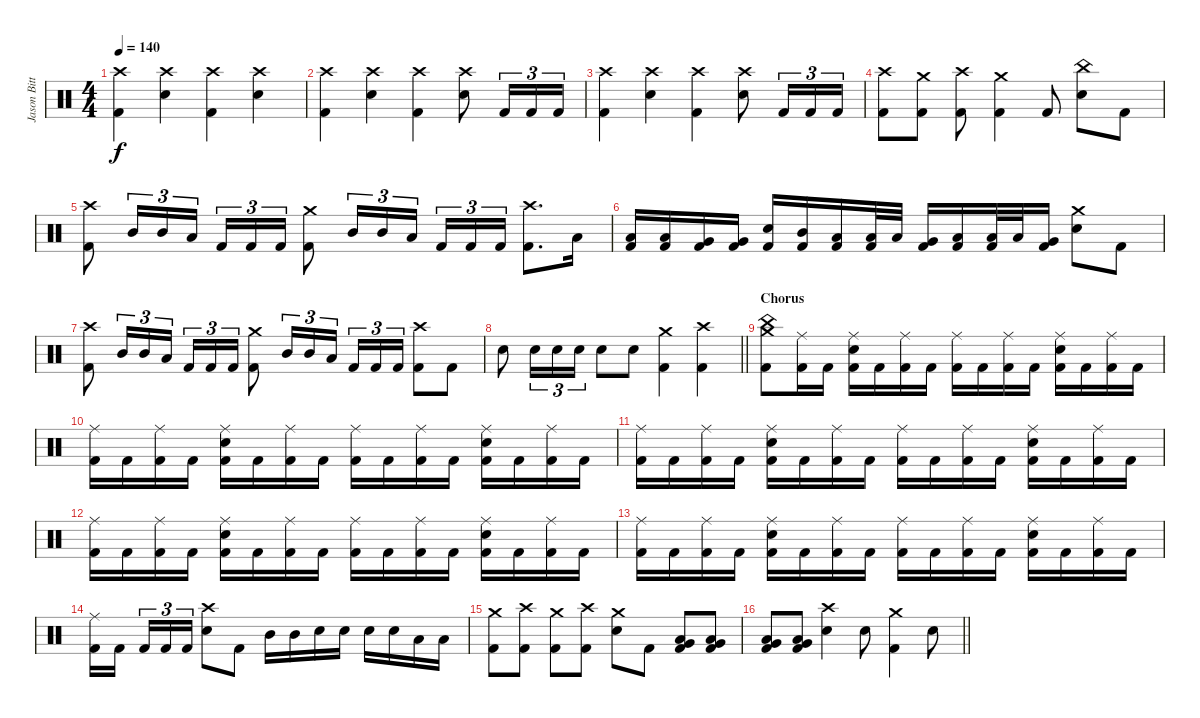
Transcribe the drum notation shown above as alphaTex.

\track ("Jason Bittner" "Jason Bitt") {instrument percussion}
\staff {score}
\articulation defaults
\ts (4 4)
\tempo 140
\clef neutral
\ks c
("Crash high (hit)" "Kick (hit) 2").4{dy f} ("Crash high (hit)" "Electric Snare (hit)").4 ("Crash high (hit)" "Kick (hit) 2").4 ("Crash high (hit)" "Electric Snare (hit)").4 |
("Crash high (hit)" "Kick (hit) 2").4 ("Crash high (hit)" "Electric Snare (hit)").4 ("Crash high (hit)" "Kick (hit) 2").4 ("Crash high (hit)" "Electric Snare (hit)").8 "Kick (hit) 2".16{tu (3 2)} "Kick (hit) 2".16{tu (3 2)} "Kick (hit) 2".16{tu (3 2)} |
("Crash high (hit)" "Kick (hit) 2").4 ("Crash high (hit)" "Electric Snare (hit)").4 ("Crash high (hit)" "Kick (hit) 2").4 ("Crash high (hit)" "Electric Snare (hit)").8 "Kick (hit) 2".16{tu (3 2)} "Kick (hit) 2".16{tu (3 2)} "Kick (hit) 2".16{tu (3 2)} |
("Crash high (hit)" "Kick (hit) 2").8 ("Crash medium (hit)" "Kick (hit) 2").8 ("Crash high (hit)" "Kick (hit) 2").8 ("Crash medium (hit)" "Kick (hit) 2").4 "Kick (hit) 2".8 ("China (hit)" "Electric Snare (hit)").8 "Kick (hit) 2".8 |
("Crash high (hit)" "Kick (hit) 2").8 "Mid Tom (hit)".16{tu (3 2)} "Mid Tom (hit)".16{tu (3 2)} "Low Tom (hit)".16{tu (3 2)} "Kick (hit) 2".16{tu (3 2)} "Kick (hit) 2".16{tu (3 2)} "Kick (hit) 2".16{tu (3 2)} ("Crash medium (hit)" "Kick (hit) 2").8 "Mid Tom (hit)".16{tu (3 2)} "Mid Tom (hit)".16{tu (3 2)} "Low Tom (hit)".16{tu (3 2) beam splitsecondary} "Kick (hit) 2".16{tu (3 2)} "Kick (hit) 2".16{tu (3 2)} "Kick (hit) 2".16{tu (3 2)} ("Crash high (hit)" "Kick (hit) 2").8{d} "Low Tom (hit)".16 |
("Low Tom (hit)" "Kick (hit) 2").16 ("Low Tom (hit)" "Kick (hit) 2").16 ("Very Low Tom (hit)" "Kick (hit) 2").16 ("Very Low Tom (hit)" "Kick (hit) 2").16 ("Electric Snare (hit)" "Kick (hit) 2").16 ("Mid Tom (hit)" "Kick (hit) 2").16 ("Low Tom (hit)" "Kick (hit) 2").16 ("Low Tom (hit)" "Kick (hit) 2").32 "Low Tom (hit)".32 ("Very Low Tom (hit)" "Kick (hit) 2").16 ("Low Tom (hit)" "Kick (hit) 2").16 ("Low Tom (hit)" "Kick (hit) 2").32 "Low Tom (hit)".32 ("Very Low Tom (hit)" "Kick (hit) 2").16 ("Crash medium (hit)" "Electric Snare (hit)").8 "Kick (hit) 2".8 |
("Crash high (hit)" "Kick (hit) 2").8 "Mid Tom (hit)".16{tu (3 2)} "Mid Tom (hit)".16{tu (3 2)} "Low Tom (hit)".16{tu (3 2)} "Kick (hit) 2".16{tu (3 2)} "Kick (hit) 2".16{tu (3 2)} "Kick (hit) 2".16{tu (3 2)} ("Crash medium (hit)" "Kick (hit) 2").8 "Mid Tom (hit)".16{tu (3 2)} "Mid Tom (hit)".16{tu (3 2)} "Low Tom (hit)".16{tu (3 2) beam splitsecondary} "Kick (hit) 2".16{tu (3 2)} "Kick (hit) 2".16{tu (3 2)} "Kick (hit) 2".16{tu (3 2)} ("Crash high (hit)" "Kick (hit) 2").8 "Kick (hit) 2".8 |
\barLineRight lightlight "Electric Snare (hit)".8 "Electric Snare (hit)".16{tu (3 2)} "Electric Snare (hit)".16{tu (3 2)} "Electric Snare (hit)".16{tu (3 2)} "Electric Snare (hit)".8 "Electric Snare (hit)".8
("Crash medium (hit)" "Kick (hit) 2").4 ("Crash high (hit)" "Kick (hit) 2").4 |
\section ("" "Chorus")
("China (hit)" "Crash medium (hit)" "Kick (hit) 2").8 ("Ride (middle)" "Kick (hit) 2").16 "Kick (hit) 2".16 ("Ride (middle)" "Electric Snare (hit)" "Kick (hit) 2").16 "Kick (hit) 2".16 ("Ride (middle)" "Kick (hit) 2").16 "Kick (hit) 2".16 ("Ride (middle)" "Kick (hit) 2").16 "Kick (hit) 2".16 ("Ride (middle)" "Kick (hit) 2").16 "Kick (hit) 2".16 ("Ride (middle)" "Electric Snare (hit)" "Kick (hit) 2").16 "Kick (hit) 2".16 ("Ride (middle)" "Kick (hit) 2").16 "Kick (hit) 2".16 |
("Ride (middle)" "Kick (hit) 2").16 "Kick (hit) 2".16 ("Ride (middle)" "Kick (hit) 2").16 "Kick (hit) 2".16 ("Ride (middle)" "Electric Snare (hit)" "Kick (hit) 2").16 "Kick (hit) 2".16 ("Ride (middle)" "Kick (hit) 2").16 "Kick (hit) 2".16 ("Ride (middle)" "Kick (hit) 2").16 "Kick (hit) 2".16 ("Ride (middle)" "Kick (hit) 2").16 "Kick (hit) 2".16 ("Ride (middle)" "Electric Snare (hit)" "Kick (hit) 2").16 "Kick (hit) 2".16 ("Ride (middle)" "Kick (hit) 2").16 "Kick (hit) 2".16 |
("Ride (middle)" "Kick (hit) 2").16 "Kick (hit) 2".16 ("Ride (middle)" "Kick (hit) 2").16 "Kick (hit) 2".16 ("Ride (middle)" "Electric Snare (hit)" "Kick (hit) 2").16 "Kick (hit) 2".16 ("Ride (middle)" "Kick (hit) 2").16 "Kick (hit) 2".16 ("Ride (middle)" "Kick (hit) 2").16 "Kick (hit) 2".16 ("Ride (middle)" "Kick (hit) 2").16 "Kick (hit) 2".16 ("Ride (middle)" "Electric Snare (hit)" "Kick (hit) 2").16 "Kick (hit) 2".16 ("Ride (middle)" "Kick (hit) 2").16 "Kick (hit) 2".16 |
("Ride (middle)" "Kick (hit) 2").16 "Kick (hit) 2".16 ("Ride (middle)" "Kick (hit) 2").16 "Kick (hit) 2".16 ("Ride (middle)" "Electric Snare (hit)" "Kick (hit) 2").16 "Kick (hit) 2".16 ("Ride (middle)" "Kick (hit) 2").16 "Kick (hit) 2".16 ("Ride (middle)" "Kick (hit) 2").16 "Kick (hit) 2".16 ("Ride (middle)" "Kick (hit) 2").16 "Kick (hit) 2".16 ("Ride (middle)" "Electric Snare (hit)" "Kick (hit) 2").16 "Kick (hit) 2".16 ("Ride (middle)" "Kick (hit) 2").16 "Kick (hit) 2".16 |
("Ride (middle)" "Kick (hit) 2").16 "Kick (hit) 2".16 ("Ride (middle)" "Kick (hit) 2").16 "Kick (hit) 2".16 ("Ride (middle)" "Electric Snare (hit)" "Kick (hit) 2").16 "Kick (hit) 2".16 ("Ride (middle)" "Kick (hit) 2").16 "Kick (hit) 2".16 ("Ride (middle)" "Kick (hit) 2").16 "Kick (hit) 2".16 ("Ride (middle)" "Kick (hit) 2").16 "Kick (hit) 2".16 ("Ride (middle)" "Electric Snare (hit)" "Kick (hit) 2").16 "Kick (hit) 2".16 ("Ride (middle)" "Kick (hit) 2").16 "Kick (hit) 2".16 |
("Ride (middle)" "Kick (hit) 2").16 "Kick (hit) 2".16{beam splitsecondary} "Kick (hit) 2".16{tu (3 2)} "Kick (hit) 2".16{tu (3 2)} "Kick (hit) 2".16{tu (3 2)} ("Crash high (hit)" "Electric Snare (hit)").8 "Kick (hit) 2".8 "Mid Tom (hit)".16 "Mid Tom (hit)".16 "Electric Snare (hit)".16 "Electric Snare (hit)".16 "Electric Snare (hit)".16 "Electric Snare (hit)".16 "Low Tom (hit)".16 "Low Tom (hit)".16 |
("Crash medium (hit)" "Kick (hit) 2").8 ("Crash high (hit)" "Kick (hit) 2").8 ("Crash medium (hit)" "Kick (hit) 2").8 ("Crash high (hit)" "Kick (hit) 2").8 ("Crash medium (hit)" "Electric Snare (hit)").8 "Kick (hit) 2".8 ("Low Tom (hit)" "Very Low Tom (hit)" "Kick (hit) 2").8 ("Low Tom (hit)" "Very Low Tom (hit)" "Kick (hit) 2").8 |
\barLineRight lightlight
("Low Tom (hit)" "Very Low Tom (hit)" "Kick (hit) 2").8 ("Low Tom (hit)" "Very Low Tom (hit)" "Kick (hit) 2").8 ("Crash high (hit)" "Electric Snare (hit)").4 "Electric Snare (hit)".8 ("Crash medium (hit)" "Kick (hit) 2").4 "Electric Snare (hit)".8
